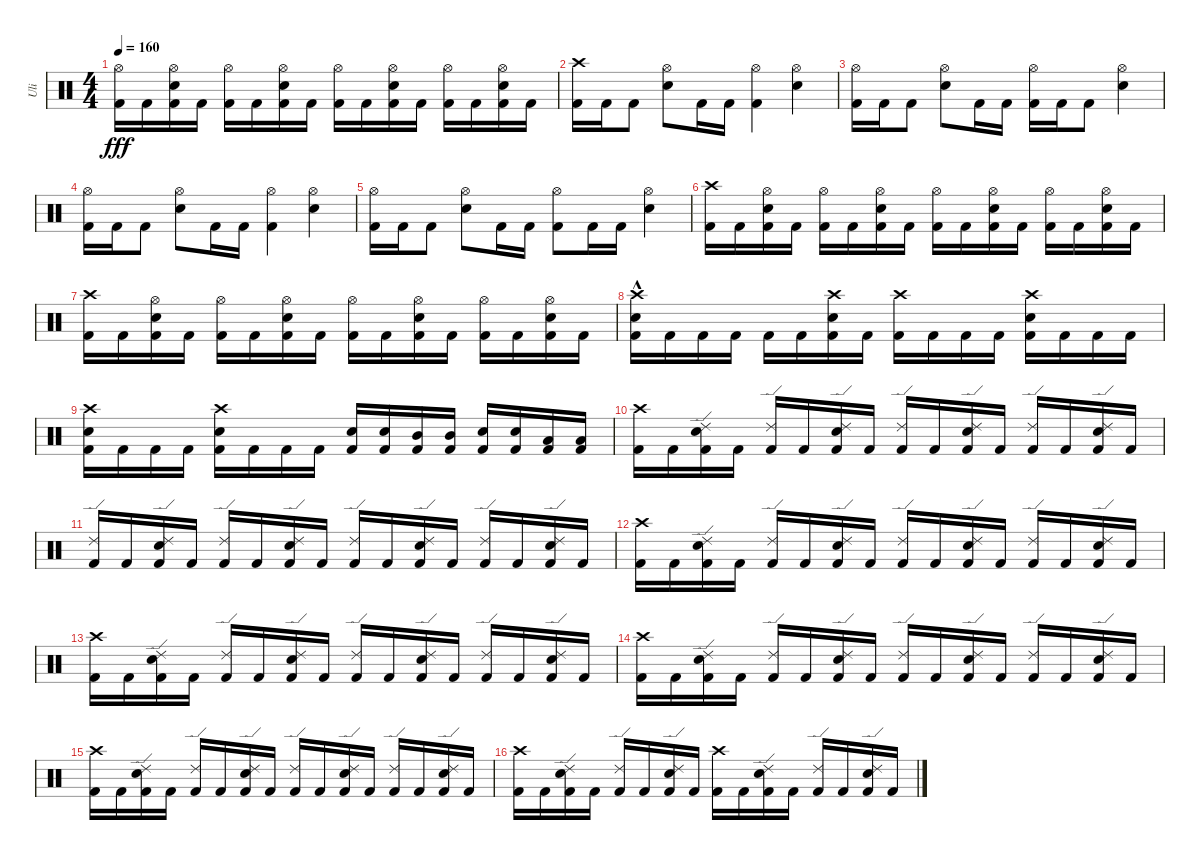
\track ("Uli" "Uli") {instrument percussion}
\staff {score}
\articulation defaults
\ts (4 4)
\tempo 160
\clef neutral
\ks c
("Kick (hit) 2" "Hi-Hat (open)").16{dy fff} "Kick (hit) 2".16 ("Kick (hit) 2" "Hi-Hat (open)" "Electric Snare (hit)").16 "Kick (hit) 2".16 ("Kick (hit) 2" "Hi-Hat (open)").16 "Kick (hit) 2".16 ("Kick (hit) 2" "Hi-Hat (open)" "Electric Snare (hit)").16 "Kick (hit) 2".16 ("Kick (hit) 2" "Hi-Hat (open)").16 "Kick (hit) 2".16 ("Kick (hit) 2" "Hi-Hat (open)" "Electric Snare (hit)").16 "Kick (hit) 2".16 ("Kick (hit) 2" "Hi-Hat (open)").16 "Kick (hit) 2".16 ("Kick (hit) 2" "Hi-Hat (open)" "Electric Snare (hit)").16 "Kick (hit) 2".16 |
("Crash high (hit)" "Kick (hit) 2").16 "Kick (hit) 2".16 "Kick (hit) 2".8 ("Electric Snare (hit)" "Hi-Hat (open)").8 "Kick (hit) 2".16 "Kick (hit) 2".16 ("Hi-Hat (open)" "Kick (hit) 2").4 ("Electric Snare (hit)" "Hi-Hat (open)").4 |
("Kick (hit) 2" "Hi-Hat (open)").16 "Kick (hit) 2".16 "Kick (hit) 2".8 ("Electric Snare (hit)" "Hi-Hat (open)").8 "Kick (hit) 2".16 "Kick (hit) 2".16 ("Hi-Hat (open)" "Kick (hit) 2").16 "Kick (hit) 2".16 "Kick (hit) 2".8 ("Electric Snare (hit)" "Hi-Hat (open)").4 |
("Kick (hit) 2" "Hi-Hat (open)").16 "Kick (hit) 2".16 "Kick (hit) 2".8 ("Electric Snare (hit)" "Hi-Hat (open)").8 "Kick (hit) 2".16 "Kick (hit) 2".16 ("Hi-Hat (open)" "Kick (hit) 2").4 ("Electric Snare (hit)" "Hi-Hat (open)").4 |
("Kick (hit) 2" "Hi-Hat (open)").16 "Kick (hit) 2".16 "Kick (hit) 2".8 ("Electric Snare (hit)" "Hi-Hat (open)").8 "Kick (hit) 2".16 "Kick (hit) 2".16 ("Hi-Hat (open)" "Kick (hit) 2").8 "Kick (hit) 2".16 "Kick (hit) 2".16 ("Electric Snare (hit)" "Hi-Hat (open)").4 |
("Kick (hit) 2" "Crash high (hit)").16 "Kick (hit) 2".16 ("Kick (hit) 2" "Hi-Hat (open)" "Electric Snare (hit)").16 "Kick (hit) 2".16 ("Kick (hit) 2" "Hi-Hat (open)").16 "Kick (hit) 2".16 ("Kick (hit) 2" "Hi-Hat (open)" "Electric Snare (hit)").16 "Kick (hit) 2".16 ("Kick (hit) 2" "Hi-Hat (open)").16 "Kick (hit) 2".16 ("Kick (hit) 2" "Hi-Hat (open)" "Electric Snare (hit)").16 "Kick (hit) 2".16 ("Kick (hit) 2" "Hi-Hat (open)").16 "Kick (hit) 2".16 ("Kick (hit) 2" "Hi-Hat (open)" "Electric Snare (hit)").16 "Kick (hit) 2".16 |
("Kick (hit) 2" "Crash high (hit)").16 "Kick (hit) 2".16 ("Kick (hit) 2" "Hi-Hat (open)" "Electric Snare (hit)").16 "Kick (hit) 2".16 ("Kick (hit) 2" "Hi-Hat (open)").16 "Kick (hit) 2".16 ("Kick (hit) 2" "Hi-Hat (open)" "Electric Snare (hit)").16 "Kick (hit) 2".16 ("Kick (hit) 2" "Hi-Hat (open)").16 "Kick (hit) 2".16 ("Kick (hit) 2" "Hi-Hat (open)" "Electric Snare (hit)").16 "Kick (hit) 2".16 ("Kick (hit) 2" "Hi-Hat (open)").16 "Kick (hit) 2".16 ("Kick (hit) 2" "Hi-Hat (open)" "Electric Snare (hit)").16 "Kick (hit) 2".16 |
("Kick (hit) 2" "Electric Snare (hit)"{hac} "Crash high (hit)"{hac}).16 "Kick (hit) 2".16 "Kick (hit) 2".16 "Kick (hit) 2".16 "Kick (hit) 2".16 "Kick (hit) 2".16 ("Kick (hit) 2" "Electric Snare (hit)" "Crash high (hit)").16 "Kick (hit) 2".16 ("Kick (hit) 2" "Crash high (hit)").16 "Kick (hit) 2".16 "Kick (hit) 2".16 "Kick (hit) 2".16 ("Kick (hit) 2" "Electric Snare (hit)" "Crash high (hit)").16 "Kick (hit) 2".16 "Kick (hit) 2".16 "Kick (hit) 2".16 |
("Kick (hit) 2" "Electric Snare (hit)" "Crash high (hit)").16 "Kick (hit) 2".16 "Kick (hit) 2".16 "Kick (hit) 2".16 ("Kick (hit) 2" "Electric Snare (hit)" "Crash high (hit)").16 "Kick (hit) 2".16 "Kick (hit) 2".16 "Kick (hit) 2".16 ("Kick (hit) 2" "Electric Snare (hit)").16 ("Kick (hit) 2" "Electric Snare (hit)").16 ("Kick (hit) 2" "Mid Tom (hit)").16 ("Kick (hit) 2" "Mid Tom (hit)").16 ("Kick (hit) 2" "Electric Snare (hit)").16 ("Kick (hit) 2" "Electric Snare (hit)").16 ("Kick (hit) 2" "Low Tom (hit)").16 ("Kick (hit) 2" "Low Tom (hit)").16 |
("Kick (hit) 2" "Crash high (hit)").16 "Kick (hit) 2".16 ("Kick (hit) 2" "Electric Snare (hit)" "Ride (edge) 2").16 "Kick (hit) 2".16 ("Kick (hit) 2" "Ride (edge) 2").16 "Kick (hit) 2".16 ("Kick (hit) 2" "Electric Snare (hit)" "Ride (edge) 2").16 "Kick (hit) 2".16 ("Kick (hit) 2" "Ride (edge) 2").16 "Kick (hit) 2".16 ("Kick (hit) 2" "Electric Snare (hit)" "Ride (edge) 2").16 "Kick (hit) 2".16 ("Kick (hit) 2" "Ride (edge) 2").16 "Kick (hit) 2".16 ("Kick (hit) 2" "Electric Snare (hit)" "Ride (edge) 2").16 "Kick (hit) 2".16 |
("Kick (hit) 2" "Ride (edge) 2").16 "Kick (hit) 2".16 ("Kick (hit) 2" "Electric Snare (hit)" "Ride (edge) 2").16 "Kick (hit) 2".16 ("Kick (hit) 2" "Ride (edge) 2").16 "Kick (hit) 2".16 ("Kick (hit) 2" "Electric Snare (hit)" "Ride (edge) 2").16 "Kick (hit) 2".16 ("Kick (hit) 2" "Ride (edge) 2").16 "Kick (hit) 2".16 ("Kick (hit) 2" "Electric Snare (hit)" "Ride (edge) 2").16 "Kick (hit) 2".16 ("Kick (hit) 2" "Ride (edge) 2").16 "Kick (hit) 2".16 ("Kick (hit) 2" "Electric Snare (hit)" "Ride (edge) 2").16 "Kick (hit) 2".16 |
("Kick (hit) 2" "Crash high (hit)").16 "Kick (hit) 2".16 ("Kick (hit) 2" "Electric Snare (hit)" "Ride (edge) 2").16 "Kick (hit) 2".16 ("Kick (hit) 2" "Ride (edge) 2").16 "Kick (hit) 2".16 ("Kick (hit) 2" "Electric Snare (hit)" "Ride (edge) 2").16 "Kick (hit) 2".16 ("Kick (hit) 2" "Ride (edge) 2").16 "Kick (hit) 2".16 ("Kick (hit) 2" "Electric Snare (hit)" "Ride (edge) 2").16 "Kick (hit) 2".16 ("Kick (hit) 2" "Ride (edge) 2").16 "Kick (hit) 2".16 ("Kick (hit) 2" "Electric Snare (hit)" "Ride (edge) 2").16 "Kick (hit) 2".16 |
("Kick (hit) 2" "Crash high (hit)").16 "Kick (hit) 2".16 ("Kick (hit) 2" "Electric Snare (hit)" "Ride (edge) 2").16 "Kick (hit) 2".16 ("Kick (hit) 2" "Ride (edge) 2").16 "Kick (hit) 2".16 ("Kick (hit) 2" "Electric Snare (hit)" "Ride (edge) 2").16 "Kick (hit) 2".16 ("Kick (hit) 2" "Ride (edge) 2").16 "Kick (hit) 2".16 ("Kick (hit) 2" "Electric Snare (hit)" "Ride (edge) 2").16 "Kick (hit) 2".16 ("Kick (hit) 2" "Ride (edge) 2").16 "Kick (hit) 2".16 ("Kick (hit) 2" "Electric Snare (hit)" "Ride (edge) 2").16 "Kick (hit) 2".16 |
("Kick (hit) 2" "Crash high (hit)").16 "Kick (hit) 2".16 ("Kick (hit) 2" "Electric Snare (hit)" "Ride (edge) 2").16 "Kick (hit) 2".16 ("Kick (hit) 2" "Ride (edge) 2").16 "Kick (hit) 2".16 ("Kick (hit) 2" "Electric Snare (hit)" "Ride (edge) 2").16 "Kick (hit) 2".16 ("Kick (hit) 2" "Ride (edge) 2").16 "Kick (hit) 2".16 ("Kick (hit) 2" "Electric Snare (hit)" "Ride (edge) 2").16 "Kick (hit) 2".16 ("Kick (hit) 2" "Ride (edge) 2").16 "Kick (hit) 2".16 ("Kick (hit) 2" "Electric Snare (hit)" "Ride (edge) 2").16 "Kick (hit) 2".16 |
("Kick (hit) 2" "Crash high (hit)").16 "Kick (hit) 2".16 ("Kick (hit) 2" "Electric Snare (hit)" "Ride (edge) 2").16 "Kick (hit) 2".16 ("Kick (hit) 2" "Ride (edge) 2").16 "Kick (hit) 2".16 ("Kick (hit) 2" "Electric Snare (hit)" "Ride (edge) 2").16 "Kick (hit) 2".16 ("Kick (hit) 2" "Ride (edge) 2").16 "Kick (hit) 2".16 ("Kick (hit) 2" "Electric Snare (hit)" "Ride (edge) 2").16 "Kick (hit) 2".16 ("Kick (hit) 2" "Ride (edge) 2").16 "Kick (hit) 2".16 ("Kick (hit) 2" "Electric Snare (hit)" "Ride (edge) 2").16 "Kick (hit) 2".16 |
("Kick (hit) 2" "Crash high (hit)").16 "Kick (hit) 2".16 ("Kick (hit) 2" "Electric Snare (hit)" "Ride (edge) 2").16 "Kick (hit) 2".16 ("Kick (hit) 2" "Ride (edge) 2").16 "Kick (hit) 2".16 ("Kick (hit) 2" "Electric Snare (hit)" "Ride (edge) 2").16 "Kick (hit) 2".16 ("Kick (hit) 2" "Crash high (hit)").16 "Kick (hit) 2".16 ("Kick (hit) 2" "Electric Snare (hit)" "Ride (edge) 2").16 "Kick (hit) 2".16 ("Kick (hit) 2" "Ride (edge) 2").16 "Kick (hit) 2".16 ("Kick (hit) 2" "Electric Snare (hit)" "Ride (edge) 2").16 "Kick (hit) 2".16
